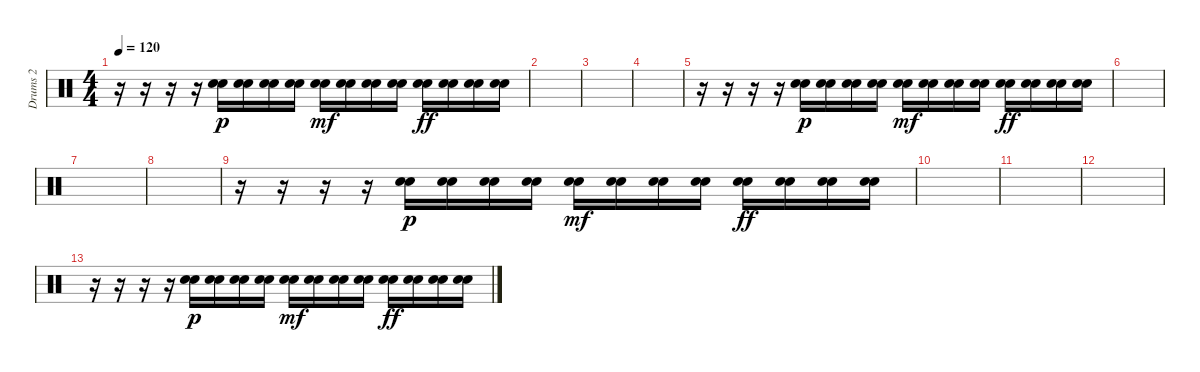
\track ("Drums 2" "Drums 2") {instrument percussion}
\staff {score}
\articulation defaults
\ts (4 4)
\tempo 120
\clef neutral
\ks c
r.16{dy ff} r.16 r.16 r.16 ("Snare (hit) 2" "Snare (hit)").16{dy p} ("Snare (hit) 2" "Snare (hit)").16 ("Snare (hit) 2" "Snare (hit)").16 ("Snare (hit) 2" "Snare (hit)").16 ("Snare (hit) 2" "Snare (hit)").16{dy mf} ("Snare (hit) 2" "Snare (hit)").16 ("Snare (hit) 2" "Snare (hit)").16 ("Snare (hit) 2" "Snare (hit)").16 ("Snare (hit) 2" "Snare (hit)").16{dy ff} ("Snare (hit) 2" "Snare (hit)").16 ("Snare (hit) 2" "Snare (hit)").16 ("Snare (hit) 2" "Snare (hit)").16 |
|
|
|
r.16 r.16 r.16 r.16 ("Snare (hit) 2" "Snare (hit)").16{dy p} ("Snare (hit) 2" "Snare (hit)").16 ("Snare (hit) 2" "Snare (hit)").16 ("Snare (hit) 2" "Snare (hit)").16 ("Snare (hit) 2" "Snare (hit)").16{dy mf} ("Snare (hit) 2" "Snare (hit)").16 ("Snare (hit) 2" "Snare (hit)").16 ("Snare (hit) 2" "Snare (hit)").16 ("Snare (hit) 2" "Snare (hit)").16{dy ff} ("Snare (hit) 2" "Snare (hit)").16 ("Snare (hit) 2" "Snare (hit)").16 ("Snare (hit) 2" "Snare (hit)").16 |
|
|
|
r.16 r.16 r.16 r.16 ("Snare (hit) 2" "Snare (hit)").16{dy p} ("Snare (hit) 2" "Snare (hit)").16 ("Snare (hit) 2" "Snare (hit)").16 ("Snare (hit) 2" "Snare (hit)").16 ("Snare (hit) 2" "Snare (hit)").16{dy mf} ("Snare (hit) 2" "Snare (hit)").16 ("Snare (hit) 2" "Snare (hit)").16 ("Snare (hit) 2" "Snare (hit)").16 ("Snare (hit) 2" "Snare (hit)").16{dy ff} ("Snare (hit) 2" "Snare (hit)").16 ("Snare (hit) 2" "Snare (hit)").16 ("Snare (hit) 2" "Snare (hit)").16 |
|
|
|
r.16{volume 8} r.16 r.16 r.16 ("Snare (hit) 2" "Snare (hit)").16{dy p} ("Snare (hit) 2" "Snare (hit)").16 ("Snare (hit) 2" "Snare (hit)").16 ("Snare (hit) 2" "Snare (hit)").16 ("Snare (hit) 2" "Snare (hit)").16{dy mf} ("Snare (hit) 2" "Snare (hit)").16 ("Snare (hit) 2" "Snare (hit)").16 ("Snare (hit) 2" "Snare (hit)").16 ("Snare (hit) 2" "Snare (hit)").16{dy ff} ("Snare (hit) 2" "Snare (hit)").16 ("Snare (hit) 2" "Snare (hit)").16 ("Snare (hit) 2" "Snare (hit)").16
